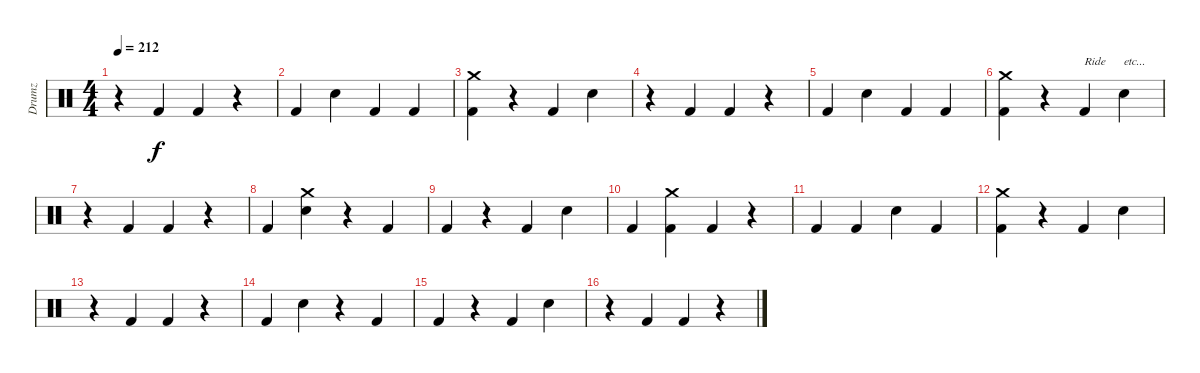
\track ("Drumz" "Drumz") {instrument percussion}
\staff {score}
\articulation defaults
\ts (4 4)
\tempo 212
\clef neutral
\ks c
r.4{dy f} "Kick (hit) 2".4 "Kick (hit) 2".4 r.4 |
"Kick (hit) 2".4 "Snare (hit) 2".4 "Kick (hit) 2".4 "Kick (hit) 2".4 |
("Kick (hit) 2" "Crash medium (hit)").4 r.4 "Kick (hit) 2".4 "Snare (hit) 2".4 |
r.4 "Kick (hit) 2".4 "Kick (hit) 2".4 r.4 |
"Kick (hit) 2".4 "Snare (hit) 2".4 "Kick (hit) 2".4 "Kick (hit) 2".4 |
("Kick (hit) 2" "Crash medium (hit)").4 r.4 "Kick (hit) 2".4{txt "Ride"} "Snare (hit) 2".4{txt "etc..."} |
r.4 "Kick (hit) 2".4 "Kick (hit) 2".4 r.4 |
"Kick (hit) 2".4 ("Snare (hit) 2" "Crash medium (hit)").4 r.4 "Kick (hit) 2".4 |
"Kick (hit) 2".4 r.4 "Kick (hit) 2".4 "Snare (hit) 2".4 |
"Kick (hit) 2".4 ("Kick (hit) 2" "Crash medium (hit)").4 "Kick (hit) 2".4 r.4 |
"Kick (hit) 2".4 "Kick (hit) 2".4 "Snare (hit) 2".4 "Kick (hit) 2".4 |
("Kick (hit) 2" "Crash medium (hit)").4 r.4 "Kick (hit) 2".4 "Snare (hit) 2".4 |
r.4 "Kick (hit) 2".4 "Kick (hit) 2".4 r.4 |
"Kick (hit) 2".4 "Snare (hit) 2".4 r.4 "Kick (hit) 2".4 |
"Kick (hit) 2".4 r.4 "Kick (hit) 2".4 "Snare (hit) 2".4 |
r.4 "Kick (hit) 2".4 "Kick (hit) 2".4 r.4
